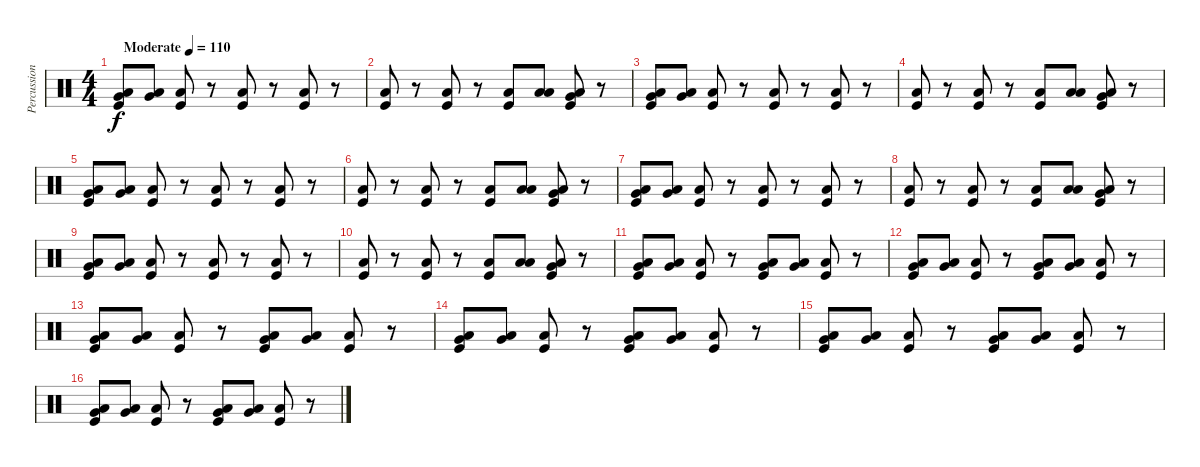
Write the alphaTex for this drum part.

\track ("Percussion" "Percussion") {instrument percussion}
\staff {score}
\articulation defaults
\ts (4 4)
\tempo (110 "Moderate")
\clef neutral
\ks c
("Low Tom (hit)" "Very Low Tom (hit)" "Kick (hit)").8{dy f} ("Low Tom (hit)" "Very Low Tom (hit)").8 ("Low Floor Tom (hit)" "Kick (hit)").8 r.8 ("Low Floor Tom (hit)" "Kick (hit)").8 r.8 ("Low Floor Tom (hit)" "Kick (hit)").8 r.8 |
("Low Floor Tom (hit)" "Kick (hit)").8 r.8 ("Low Floor Tom (hit)" "Kick (hit)").8 r.8 ("Low Floor Tom (hit)" "Kick (hit)").8 ("Low Tom (hit)" "Low Tom (hit)").8 ("Low Floor Tom (hit)" "Very Low Tom (hit)" "Kick (hit)").8 r.8 |
("Low Tom (hit)" "Very Low Tom (hit)" "Kick (hit)").8 ("Low Tom (hit)" "Very Low Tom (hit)").8 ("Low Floor Tom (hit)" "Kick (hit)").8 r.8 ("Low Floor Tom (hit)" "Kick (hit)").8 r.8 ("Low Floor Tom (hit)" "Kick (hit)").8 r.8 |
("Low Floor Tom (hit)" "Kick (hit)").8 r.8 ("Low Floor Tom (hit)" "Kick (hit)").8 r.8 ("Low Floor Tom (hit)" "Kick (hit)").8 ("Low Tom (hit)" "Low Tom (hit)").8 ("Low Floor Tom (hit)" "Very Low Tom (hit)" "Kick (hit)").8 r.8 |
("Low Tom (hit)" "Very Low Tom (hit)" "Kick (hit)").8 ("Low Tom (hit)" "Very Low Tom (hit)").8 ("Low Floor Tom (hit)" "Kick (hit)").8 r.8 ("Low Floor Tom (hit)" "Kick (hit)").8 r.8 ("Low Floor Tom (hit)" "Kick (hit)").8 r.8 |
("Low Floor Tom (hit)" "Kick (hit)").8 r.8 ("Low Floor Tom (hit)" "Kick (hit)").8 r.8 ("Low Floor Tom (hit)" "Kick (hit)").8 ("Low Tom (hit)" "Low Tom (hit)").8 ("Low Floor Tom (hit)" "Very Low Tom (hit)" "Kick (hit)").8 r.8 |
("Low Tom (hit)" "Very Low Tom (hit)" "Kick (hit)").8 ("Low Tom (hit)" "Very Low Tom (hit)").8 ("Low Floor Tom (hit)" "Kick (hit)").8 r.8 ("Low Floor Tom (hit)" "Kick (hit)").8 r.8 ("Low Floor Tom (hit)" "Kick (hit)").8 r.8 |
("Low Floor Tom (hit)" "Kick (hit)").8 r.8 ("Low Floor Tom (hit)" "Kick (hit)").8 r.8 ("Low Floor Tom (hit)" "Kick (hit)").8 ("Low Tom (hit)" "Low Tom (hit)").8 ("Low Floor Tom (hit)" "Very Low Tom (hit)" "Kick (hit)").8 r.8 |
("Low Tom (hit)" "Very Low Tom (hit)" "Kick (hit)").8 ("Low Tom (hit)" "Very Low Tom (hit)").8 ("Low Floor Tom (hit)" "Kick (hit)").8 r.8 ("Low Floor Tom (hit)" "Kick (hit)").8 r.8 ("Low Floor Tom (hit)" "Kick (hit)").8 r.8 |
("Low Floor Tom (hit)" "Kick (hit)").8 r.8 ("Low Floor Tom (hit)" "Kick (hit)").8 r.8 ("Low Floor Tom (hit)" "Kick (hit)").8 ("Low Tom (hit)" "Low Tom (hit)").8 ("Low Floor Tom (hit)" "Very Low Tom (hit)" "Kick (hit)").8 r.8 |
("Low Tom (hit)" "Very Low Tom (hit)" "Kick (hit)").8 ("Low Tom (hit)" "Very Low Tom (hit)").8 ("Low Floor Tom (hit)" "Kick (hit)").8 r.8 ("Low Tom (hit)" "Very Low Tom (hit)" "Kick (hit)").8 ("Low Tom (hit)" "Very Low Tom (hit)").8 ("Low Floor Tom (hit)" "Kick (hit)").8 r.8 |
("Low Tom (hit)" "Very Low Tom (hit)" "Kick (hit)").8 ("Low Tom (hit)" "Very Low Tom (hit)").8 ("Low Floor Tom (hit)" "Kick (hit)").8 r.8 ("Low Tom (hit)" "Very Low Tom (hit)" "Kick (hit)").8 ("Low Tom (hit)" "Very Low Tom (hit)").8 ("Low Floor Tom (hit)" "Kick (hit)").8 r.8 |
("Low Tom (hit)" "Very Low Tom (hit)" "Kick (hit)").8 ("Low Tom (hit)" "Very Low Tom (hit)").8 ("Low Floor Tom (hit)" "Kick (hit)").8 r.8 ("Low Tom (hit)" "Very Low Tom (hit)" "Kick (hit)").8 ("Low Tom (hit)" "Very Low Tom (hit)").8 ("Low Floor Tom (hit)" "Kick (hit)").8 r.8 |
("Low Tom (hit)" "Very Low Tom (hit)" "Kick (hit)").8 ("Low Tom (hit)" "Very Low Tom (hit)").8 ("Low Floor Tom (hit)" "Kick (hit)").8 r.8 ("Low Tom (hit)" "Very Low Tom (hit)" "Kick (hit)").8 ("Low Tom (hit)" "Very Low Tom (hit)").8 ("Low Floor Tom (hit)" "Kick (hit)").8 r.8 |
("Low Tom (hit)" "Very Low Tom (hit)" "Kick (hit)").8 ("Low Tom (hit)" "Very Low Tom (hit)").8 ("Low Floor Tom (hit)" "Kick (hit)").8 r.8 ("Low Tom (hit)" "Very Low Tom (hit)" "Kick (hit)").8 ("Low Tom (hit)" "Very Low Tom (hit)").8 ("Low Floor Tom (hit)" "Kick (hit)").8 r.8 |
("Low Tom (hit)" "Very Low Tom (hit)" "Kick (hit)").8 ("Low Tom (hit)" "Very Low Tom (hit)").8 ("Low Floor Tom (hit)" "Kick (hit)").8 r.8 ("Low Tom (hit)" "Very Low Tom (hit)" "Kick (hit)").8 ("Low Tom (hit)" "Very Low Tom (hit)").8 ("Low Floor Tom (hit)" "Kick (hit)").8 r.8
